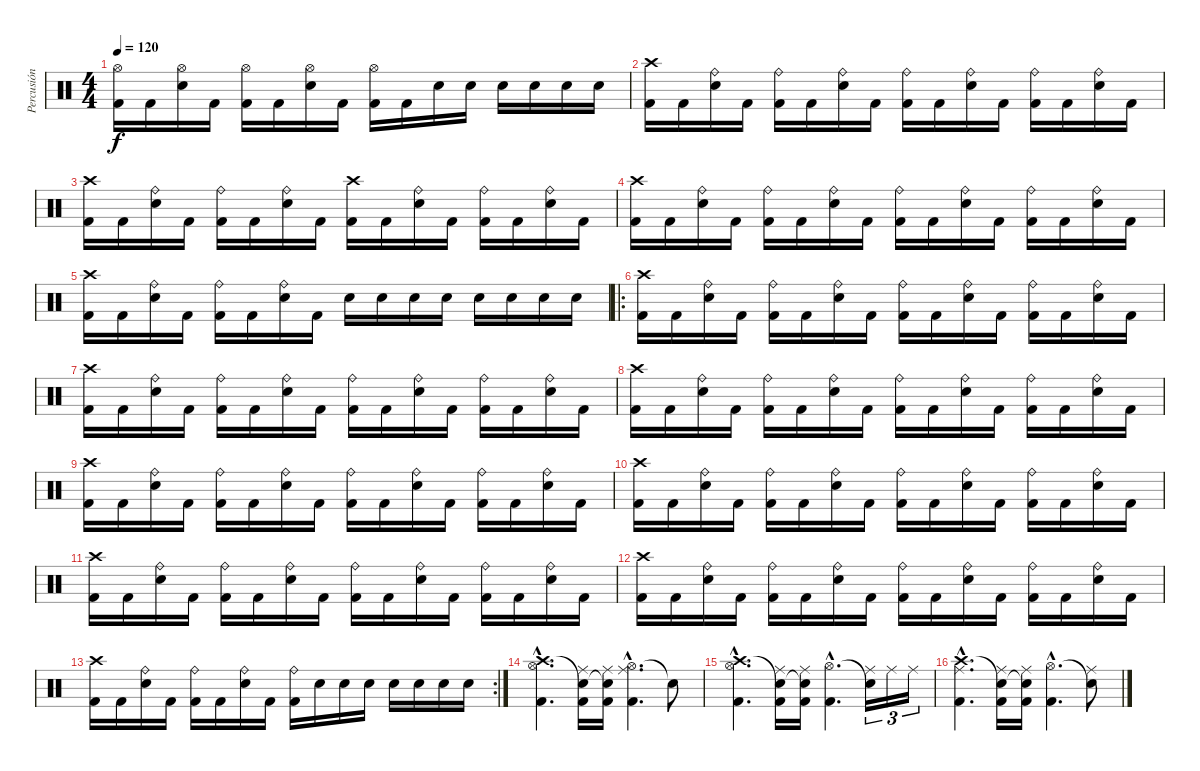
\track ("Percusión" "Percusión") {instrument percussion}
\staff {score}
\articulation defaults
\ts (4 4)
\tempo 120
\clef neutral
\ks c
("Hi-Hat (open)" "Kick (hit) 2").16{dy f} "Kick (hit) 2".16 ("Hi-Hat (open)" "Electric Snare (hit)").16 "Kick (hit) 2".16 ("Hi-Hat (open)" "Kick (hit) 2").16 "Kick (hit) 2".16 ("Hi-Hat (open)" "Electric Snare (hit)").16 "Kick (hit) 2".16 ("Hi-Hat (open)" "Kick (hit) 2").16 "Kick (hit) 2".16 "Electric Snare (hit)".16 "Electric Snare (hit)".16 "Electric Snare (hit)".16 "Electric Snare (hit)".16 "Electric Snare (hit)".16 "Electric Snare (hit)".16 |
("Crash high (hit)" "Kick (hit) 2").16 "Kick (hit) 2".16 ("Ride (bell)" "Electric Snare (hit)").16 "Kick (hit) 2".16 ("Ride (bell)" "Kick (hit) 2").16 "Kick (hit) 2".16 ("Ride (bell)" "Electric Snare (hit)").16 "Kick (hit) 2".16 ("Ride (bell)" "Kick (hit) 2").16 "Kick (hit) 2".16 ("Ride (bell)" "Electric Snare (hit)").16 "Kick (hit) 2".16 ("Ride (bell)" "Kick (hit) 2").16 "Kick (hit) 2".16 ("Ride (bell)" "Electric Snare (hit)").16 "Kick (hit) 2".16 |
("Crash high (hit)" "Kick (hit) 2").16 "Kick (hit) 2".16 ("Ride (bell)" "Electric Snare (hit)").16 "Kick (hit) 2".16 ("Ride (bell)" "Kick (hit) 2").16 "Kick (hit) 2".16 ("Ride (bell)" "Electric Snare (hit)").16 "Kick (hit) 2".16 ("Crash high (hit)" "Kick (hit) 2").16 "Kick (hit) 2".16 ("Ride (bell)" "Electric Snare (hit)").16 "Kick (hit) 2".16 ("Ride (bell)" "Kick (hit) 2").16 "Kick (hit) 2".16 ("Ride (bell)" "Electric Snare (hit)").16 "Kick (hit) 2".16 |
("Crash high (hit)" "Kick (hit) 2").16 "Kick (hit) 2".16 ("Ride (bell)" "Electric Snare (hit)").16 "Kick (hit) 2".16 ("Ride (bell)" "Kick (hit) 2").16 "Kick (hit) 2".16 ("Ride (bell)" "Electric Snare (hit)").16 "Kick (hit) 2".16 ("Ride (bell)" "Kick (hit) 2").16 "Kick (hit) 2".16 ("Ride (bell)" "Electric Snare (hit)").16 "Kick (hit) 2".16 ("Ride (bell)" "Kick (hit) 2").16 "Kick (hit) 2".16 ("Ride (bell)" "Electric Snare (hit)").16 "Kick (hit) 2".16 |
("Crash high (hit)" "Kick (hit) 2").16 "Kick (hit) 2".16 ("Ride (bell)" "Electric Snare (hit)").16 "Kick (hit) 2".16 ("Ride (bell)" "Kick (hit) 2").16 "Kick (hit) 2".16 ("Ride (bell)" "Electric Snare (hit)").16 "Kick (hit) 2".16 "Electric Snare (hit)".16 "Electric Snare (hit)".16 "Electric Snare (hit)".16 "Electric Snare (hit)".16 "Electric Snare (hit)".16 "Electric Snare (hit)".16 "Electric Snare (hit)".16 "Electric Snare (hit)".16 |
\ro
("Crash high (hit)" "Kick (hit) 2").16 "Kick (hit) 2".16 ("Ride (bell)" "Electric Snare (hit)").16 "Kick (hit) 2".16 ("Ride (bell)" "Kick (hit) 2").16 "Kick (hit) 2".16 ("Ride (bell)" "Electric Snare (hit)").16 "Kick (hit) 2".16 ("Ride (bell)" "Kick (hit) 2").16 "Kick (hit) 2".16 ("Ride (bell)" "Electric Snare (hit)").16 "Kick (hit) 2".16 ("Ride (bell)" "Kick (hit) 2").16 "Kick (hit) 2".16 ("Ride (bell)" "Electric Snare (hit)").16 "Kick (hit) 2".16 |
("Crash high (hit)" "Kick (hit) 2").16 "Kick (hit) 2".16 ("Ride (bell)" "Electric Snare (hit)").16 "Kick (hit) 2".16 ("Ride (bell)" "Kick (hit) 2").16 "Kick (hit) 2".16 ("Ride (bell)" "Electric Snare (hit)").16 "Kick (hit) 2".16 ("Ride (bell)" "Kick (hit) 2").16 "Kick (hit) 2".16 ("Ride (bell)" "Electric Snare (hit)").16 "Kick (hit) 2".16 ("Ride (bell)" "Kick (hit) 2").16 "Kick (hit) 2".16 ("Ride (bell)" "Electric Snare (hit)").16 "Kick (hit) 2".16 |
("Crash high (hit)" "Kick (hit) 2").16 "Kick (hit) 2".16 ("Ride (bell)" "Electric Snare (hit)").16 "Kick (hit) 2".16 ("Ride (bell)" "Kick (hit) 2").16 "Kick (hit) 2".16 ("Ride (bell)" "Electric Snare (hit)").16 "Kick (hit) 2".16 ("Ride (bell)" "Kick (hit) 2").16 "Kick (hit) 2".16 ("Ride (bell)" "Electric Snare (hit)").16 "Kick (hit) 2".16 ("Ride (bell)" "Kick (hit) 2").16 "Kick (hit) 2".16 ("Ride (bell)" "Electric Snare (hit)").16 "Kick (hit) 2".16 |
("Crash high (hit)" "Kick (hit) 2").16 "Kick (hit) 2".16 ("Ride (bell)" "Electric Snare (hit)").16 "Kick (hit) 2".16 ("Ride (bell)" "Kick (hit) 2").16 "Kick (hit) 2".16 ("Ride (bell)" "Electric Snare (hit)").16 "Kick (hit) 2".16 ("Ride (bell)" "Kick (hit) 2").16 "Kick (hit) 2".16 ("Ride (bell)" "Electric Snare (hit)").16 "Kick (hit) 2".16 ("Ride (bell)" "Kick (hit) 2").16 "Kick (hit) 2".16 ("Ride (bell)" "Electric Snare (hit)").16 "Kick (hit) 2".16 |
("Crash high (hit)" "Kick (hit) 2").16 "Kick (hit) 2".16 ("Ride (bell)" "Electric Snare (hit)").16 "Kick (hit) 2".16 ("Ride (bell)" "Kick (hit) 2").16 "Kick (hit) 2".16 ("Ride (bell)" "Electric Snare (hit)").16 "Kick (hit) 2".16 ("Ride (bell)" "Kick (hit) 2").16 "Kick (hit) 2".16 ("Ride (bell)" "Electric Snare (hit)").16 "Kick (hit) 2".16 ("Ride (bell)" "Kick (hit) 2").16 "Kick (hit) 2".16 ("Ride (bell)" "Electric Snare (hit)").16 "Kick (hit) 2".16 |
("Crash high (hit)" "Kick (hit) 2").16 "Kick (hit) 2".16 ("Ride (bell)" "Electric Snare (hit)").16 "Kick (hit) 2".16 ("Ride (bell)" "Kick (hit) 2").16 "Kick (hit) 2".16 ("Ride (bell)" "Electric Snare (hit)").16 "Kick (hit) 2".16 ("Ride (bell)" "Kick (hit) 2").16 "Kick (hit) 2".16 ("Ride (bell)" "Electric Snare (hit)").16 "Kick (hit) 2".16 ("Ride (bell)" "Kick (hit) 2").16 "Kick (hit) 2".16 ("Ride (bell)" "Electric Snare (hit)").16 "Kick (hit) 2".16 |
("Crash high (hit)" "Kick (hit) 2").16 "Kick (hit) 2".16 ("Ride (bell)" "Electric Snare (hit)").16 "Kick (hit) 2".16 ("Ride (bell)" "Kick (hit) 2").16 "Kick (hit) 2".16 ("Ride (bell)" "Electric Snare (hit)").16 "Kick (hit) 2".16 ("Ride (bell)" "Kick (hit) 2").16 "Kick (hit) 2".16 ("Ride (bell)" "Electric Snare (hit)").16 "Kick (hit) 2".16 ("Ride (bell)" "Kick (hit) 2").16 "Kick (hit) 2".16 ("Ride (bell)" "Electric Snare (hit)").16 "Kick (hit) 2".16 |
\rc 2
("Crash high (hit)" "Kick (hit) 2").16 "Kick (hit) 2".16 ("Ride (bell)" "Electric Snare (hit)").16 "Kick (hit) 2".16 ("Ride (bell)" "Kick (hit) 2").16 "Kick (hit) 2".16 ("Ride (bell)" "Electric Snare (hit)").16 "Kick (hit) 2".16 ("Ride (bell)" "Kick (hit) 2").16 "Electric Snare (hit)".16 "Electric Snare (hit)".16 "Electric Snare (hit)".16 "Electric Snare (hit)".16 "Electric Snare (hit)".16 "Electric Snare (hit)".16 "Electric Snare (hit)".16 |
("Crash high (hit)"{hac} "Hi-Hat (open)"{hac} "Kick (hit) 2"{hac}).4{d} ("Snare (hit)"{t} "Kick (hit) 2" "Ride (middle)").16 ("Snare (hit)"{t} "Kick (hit) 2" "Ride (middle)").16 ("Hi-Hat (open)"{hac} "Kick (hit) 2"{hac} "Ride (middle)"{hac}).4{d} "Snare (hit)"{t}.8 |
("Crash high (hit)"{hac} "Hi-Hat (open)"{hac} "Kick (hit) 2"{hac}).4{d} ("Snare (hit)"{t} "Kick (hit) 2" "Ride (middle)").16 ("Snare (hit)"{t} "Kick (hit) 2" "Ride (middle)").16 ("Hi-Hat (open)"{hac} "Kick (hit) 2"{hac}).4{d} ("Snare (hit)"{t} "Ride (middle)").16{tu (3 2)} "Ride (middle)".16{tu (3 2)} "Ride (middle)".16{tu (3 2)} |
("Crash high (hit)"{hac} "Ride (middle)"{hac} "Kick (hit) 2"{hac}).4{d} ("Snare (hit)"{t} "Kick (hit) 2" "Ride (middle)").16 ("Snare (hit)"{t} "Kick (hit) 2" "Ride (middle)").16 ("Hi-Hat (open)"{hac} "Kick (hit) 2"{hac}).4{d} ("Snare (hit)"{t} "Ride (middle)").8
